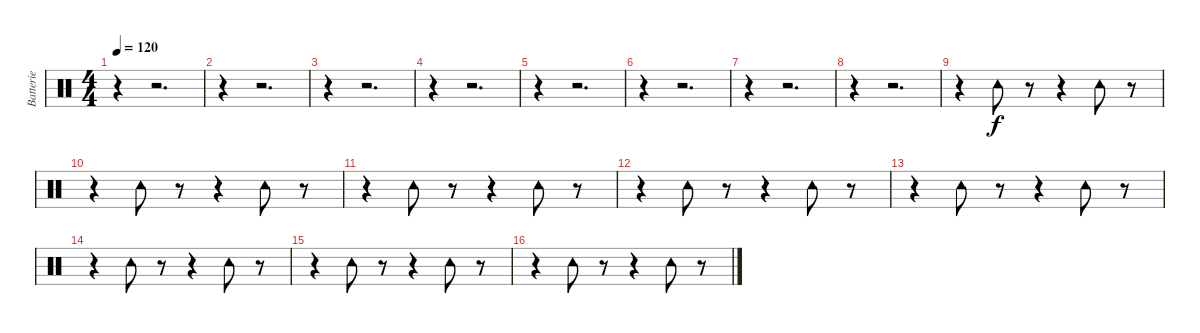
\track ("Batterie" "Batterie") {instrument percussion}
\staff {score}
\articulation defaults
\ts (4 4)
\tempo 120
\clef neutral
\ks c
r.4{dy f} r.2{d} |
r.4 r.2{d} |
r.4 r.2{d} |
r.4 r.2{d} |
r.4 r.2{d} |
r.4 r.2{d} |
r.4 r.2{d} |
r.4 r.2{d} |
r.4 "Tambourine (hit)".8 r.8 r.4 "Tambourine (hit)".8 r.8 |
r.4 "Tambourine (hit)".8 r.8 r.4 "Tambourine (hit)".8 r.8 |
r.4 "Tambourine (hit)".8 r.8 r.4 "Tambourine (hit)".8 r.8 |
r.4 "Tambourine (hit)".8 r.8 r.4 "Tambourine (hit)".8 r.8 |
r.4 "Tambourine (hit)".8 r.8 r.4 "Tambourine (hit)".8 r.8 |
r.4 "Tambourine (hit)".8 r.8 r.4 "Tambourine (hit)".8 r.8 |
r.4 "Tambourine (hit)".8 r.8 r.4 "Tambourine (hit)".8 r.8 |
r.4 "Tambourine (hit)".8 r.8 r.4 "Tambourine (hit)".8 r.8
